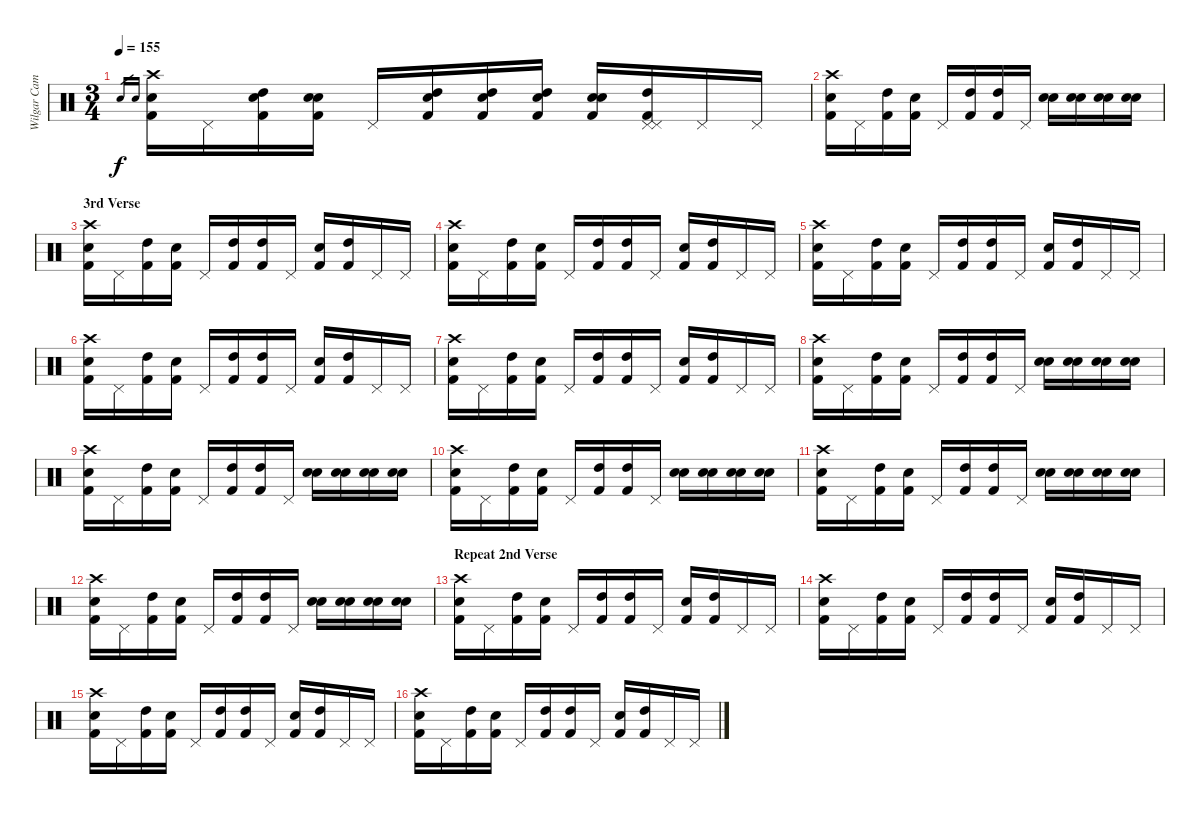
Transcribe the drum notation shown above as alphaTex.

\track ("Wilgar Campbell" "Wilgar Cam") {instrument percussion}
\staff {score}
\articulation defaults
\ts (3 4)
\tempo 155
\clef neutral
\ks c "Electric Snare (hit)".16{gr dy f} "Electric Snare (hit)".16{gr}
("Kick (hit) 2" "Snare (hit) 2" "Crash high (hit)").16 "Pedal Hi-Hat (hit)".16 ("Electric Snare (hit)" "Kick (hit) 2" "High Tom (hit)").16 ("Electric Snare (hit)" "Kick (hit) 2" "Snare (hit) 2").16 "Pedal Hi-Hat (hit)".16 ("Electric Snare (hit)" "High Tom (hit)" "Kick (hit) 2").16 ("Electric Snare (hit)" "High Tom (hit)" "Kick (hit) 2").16 ("Electric Snare (hit)" "High Tom (hit)" "Kick (hit) 2").16 ("Electric Snare (hit)" "Electric Snare (hit)" "Kick (hit) 2").16 ("Kick (hit) 2" "Pedal Hi-Hat (hit)" "High Tom (hit)" "Pedal Hi-Hat (hit)").16 "Pedal Hi-Hat (hit)".16 "Pedal Hi-Hat (hit)".16 |
("Kick (hit) 2" "Snare (hit) 2" "Crash high (hit)").16 "Pedal Hi-Hat (hit)".16 ("Kick (hit) 2" "High Tom (hit)").16 ("Kick (hit) 2" "Snare (hit) 2").16 "Pedal Hi-Hat (hit)".16 ("High Tom (hit)" "Kick (hit) 2").16 ("High Tom (hit)" "Kick (hit) 2").16 "Pedal Hi-Hat (hit)".16 ("Electric Snare (hit)" "Electric Snare (hit)").16 ("Electric Snare (hit)" "Electric Snare (hit)").16 ("Electric Snare (hit)" "Electric Snare (hit)").16 ("Electric Snare (hit)" "Electric Snare (hit)").16 |
\section ("" "3rd Verse")
("Kick (hit) 2" "Snare (hit) 2" "Crash high (hit)").16 "Pedal Hi-Hat (hit)".16 ("Kick (hit) 2" "High Tom (hit)").16 ("Kick (hit) 2" "Snare (hit) 2").16 "Pedal Hi-Hat (hit)".16 ("High Tom (hit)" "Kick (hit) 2").16 ("High Tom (hit)" "Kick (hit) 2").16 "Pedal Hi-Hat (hit)".16 ("Electric Snare (hit)" "Kick (hit) 2").16 ("High Tom (hit)" "Kick (hit) 2").16 "Pedal Hi-Hat (hit)".16 "Pedal Hi-Hat (hit)".16 |
("Kick (hit) 2" "Snare (hit) 2" "Crash high (hit)").16 "Pedal Hi-Hat (hit)".16 ("Kick (hit) 2" "High Tom (hit)").16 ("Kick (hit) 2" "Snare (hit) 2").16 "Pedal Hi-Hat (hit)".16 ("High Tom (hit)" "Kick (hit) 2").16 ("High Tom (hit)" "Kick (hit) 2").16 "Pedal Hi-Hat (hit)".16 ("Electric Snare (hit)" "Kick (hit) 2").16 ("High Tom (hit)" "Kick (hit) 2").16 "Pedal Hi-Hat (hit)".16 "Pedal Hi-Hat (hit)".16 |
("Kick (hit) 2" "Snare (hit) 2" "Crash high (hit)").16 "Pedal Hi-Hat (hit)".16 ("Kick (hit) 2" "High Tom (hit)").16 ("Kick (hit) 2" "Snare (hit) 2").16 "Pedal Hi-Hat (hit)".16 ("High Tom (hit)" "Kick (hit) 2").16 ("High Tom (hit)" "Kick (hit) 2").16 "Pedal Hi-Hat (hit)".16 ("Electric Snare (hit)" "Kick (hit) 2").16 ("High Tom (hit)" "Kick (hit) 2").16 "Pedal Hi-Hat (hit)".16 "Pedal Hi-Hat (hit)".16 |
("Kick (hit) 2" "Snare (hit) 2" "Crash high (hit)").16 "Pedal Hi-Hat (hit)".16 ("Kick (hit) 2" "High Tom (hit)").16 ("Kick (hit) 2" "Snare (hit) 2").16 "Pedal Hi-Hat (hit)".16 ("High Tom (hit)" "Kick (hit) 2").16 ("High Tom (hit)" "Kick (hit) 2").16 "Pedal Hi-Hat (hit)".16 ("Electric Snare (hit)" "Kick (hit) 2").16 ("High Tom (hit)" "Kick (hit) 2").16 "Pedal Hi-Hat (hit)".16 "Pedal Hi-Hat (hit)".16 |
("Kick (hit) 2" "Snare (hit) 2" "Crash high (hit)").16 "Pedal Hi-Hat (hit)".16 ("Kick (hit) 2" "High Tom (hit)").16 ("Kick (hit) 2" "Snare (hit) 2").16 "Pedal Hi-Hat (hit)".16 ("High Tom (hit)" "Kick (hit) 2").16 ("High Tom (hit)" "Kick (hit) 2").16 "Pedal Hi-Hat (hit)".16 ("Electric Snare (hit)" "Kick (hit) 2").16 ("High Tom (hit)" "Kick (hit) 2").16 "Pedal Hi-Hat (hit)".16 "Pedal Hi-Hat (hit)".16 |
("Kick (hit) 2" "Snare (hit) 2" "Crash high (hit)").16 "Pedal Hi-Hat (hit)".16 ("Kick (hit) 2" "High Tom (hit)").16 ("Kick (hit) 2" "Snare (hit) 2").16 "Pedal Hi-Hat (hit)".16 ("High Tom (hit)" "Kick (hit) 2").16 ("High Tom (hit)" "Kick (hit) 2").16 "Pedal Hi-Hat (hit)".16 ("Electric Snare (hit)" "Electric Snare (hit)").16 ("Electric Snare (hit)" "Electric Snare (hit)").16 ("Electric Snare (hit)" "Electric Snare (hit)").16 ("Electric Snare (hit)" "Electric Snare (hit)").16 |
("Kick (hit) 2" "Snare (hit) 2" "Crash high (hit)").16 "Pedal Hi-Hat (hit)".16 ("Kick (hit) 2" "High Tom (hit)").16 ("Kick (hit) 2" "Snare (hit) 2").16 "Pedal Hi-Hat (hit)".16 ("High Tom (hit)" "Kick (hit) 2").16 ("High Tom (hit)" "Kick (hit) 2").16 "Pedal Hi-Hat (hit)".16 ("Electric Snare (hit)" "Electric Snare (hit)").16 ("Electric Snare (hit)" "Electric Snare (hit)").16 ("Electric Snare (hit)" "Electric Snare (hit)").16 ("Electric Snare (hit)" "Electric Snare (hit)").16 |
("Kick (hit) 2" "Snare (hit) 2" "Crash high (hit)").16 "Pedal Hi-Hat (hit)".16 ("Kick (hit) 2" "High Tom (hit)").16 ("Kick (hit) 2" "Snare (hit) 2").16 "Pedal Hi-Hat (hit)".16 ("High Tom (hit)" "Kick (hit) 2").16 ("High Tom (hit)" "Kick (hit) 2").16 "Pedal Hi-Hat (hit)".16 ("Electric Snare (hit)" "Electric Snare (hit)").16 ("Electric Snare (hit)" "Electric Snare (hit)").16 ("Electric Snare (hit)" "Electric Snare (hit)").16 ("Electric Snare (hit)" "Electric Snare (hit)").16 |
("Kick (hit) 2" "Snare (hit) 2" "Crash high (hit)").16 "Pedal Hi-Hat (hit)".16 ("Kick (hit) 2" "High Tom (hit)").16 ("Kick (hit) 2" "Snare (hit) 2").16 "Pedal Hi-Hat (hit)".16 ("High Tom (hit)" "Kick (hit) 2").16 ("High Tom (hit)" "Kick (hit) 2").16 "Pedal Hi-Hat (hit)".16 ("Electric Snare (hit)" "Electric Snare (hit)").16 ("Electric Snare (hit)" "Electric Snare (hit)").16 ("Electric Snare (hit)" "Electric Snare (hit)").16 ("Electric Snare (hit)" "Electric Snare (hit)").16 |
("Kick (hit) 2" "Snare (hit) 2" "Crash high (hit)").16 "Pedal Hi-Hat (hit)".16 ("Kick (hit) 2" "High Tom (hit)").16 ("Kick (hit) 2" "Snare (hit) 2").16 "Pedal Hi-Hat (hit)".16 ("High Tom (hit)" "Kick (hit) 2").16 ("High Tom (hit)" "Kick (hit) 2").16 "Pedal Hi-Hat (hit)".16 ("Electric Snare (hit)" "Electric Snare (hit)").16 ("Electric Snare (hit)" "Electric Snare (hit)").16 ("Electric Snare (hit)" "Electric Snare (hit)").16 ("Electric Snare (hit)" "Electric Snare (hit)").16 |
\section ("" "Repeat 2nd Verse")
("Kick (hit) 2" "Snare (hit) 2" "Crash high (hit)").16 "Pedal Hi-Hat (hit)".16 ("Kick (hit) 2" "High Tom (hit)").16 ("Kick (hit) 2" "Snare (hit) 2").16 "Pedal Hi-Hat (hit)".16 ("High Tom (hit)" "Kick (hit) 2").16 ("High Tom (hit)" "Kick (hit) 2").16 "Pedal Hi-Hat (hit)".16 ("Electric Snare (hit)" "Kick (hit) 2").16 ("High Tom (hit)" "Kick (hit) 2").16 "Pedal Hi-Hat (hit)".16 "Pedal Hi-Hat (hit)".16 |
("Kick (hit) 2" "Snare (hit) 2" "Crash high (hit)").16 "Pedal Hi-Hat (hit)".16 ("Kick (hit) 2" "High Tom (hit)").16 ("Kick (hit) 2" "Snare (hit) 2").16 "Pedal Hi-Hat (hit)".16 ("High Tom (hit)" "Kick (hit) 2").16 ("High Tom (hit)" "Kick (hit) 2").16 "Pedal Hi-Hat (hit)".16 ("Electric Snare (hit)" "Kick (hit) 2").16 ("High Tom (hit)" "Kick (hit) 2").16 "Pedal Hi-Hat (hit)".16 "Pedal Hi-Hat (hit)".16 |
("Kick (hit) 2" "Snare (hit) 2" "Crash high (hit)").16 "Pedal Hi-Hat (hit)".16 ("Kick (hit) 2" "High Tom (hit)").16 ("Kick (hit) 2" "Snare (hit) 2").16 "Pedal Hi-Hat (hit)".16 ("High Tom (hit)" "Kick (hit) 2").16 ("High Tom (hit)" "Kick (hit) 2").16 "Pedal Hi-Hat (hit)".16 ("Electric Snare (hit)" "Kick (hit) 2").16 ("High Tom (hit)" "Kick (hit) 2").16 "Pedal Hi-Hat (hit)".16 "Pedal Hi-Hat (hit)".16 |
("Kick (hit) 2" "Snare (hit) 2" "Crash high (hit)").16 "Pedal Hi-Hat (hit)".16 ("Kick (hit) 2" "High Tom (hit)").16 ("Kick (hit) 2" "Snare (hit) 2").16 "Pedal Hi-Hat (hit)".16 ("High Tom (hit)" "Kick (hit) 2").16 ("High Tom (hit)" "Kick (hit) 2").16 "Pedal Hi-Hat (hit)".16 ("Electric Snare (hit)" "Kick (hit) 2").16 ("High Tom (hit)" "Kick (hit) 2").16 "Pedal Hi-Hat (hit)".16 "Pedal Hi-Hat (hit)".16
